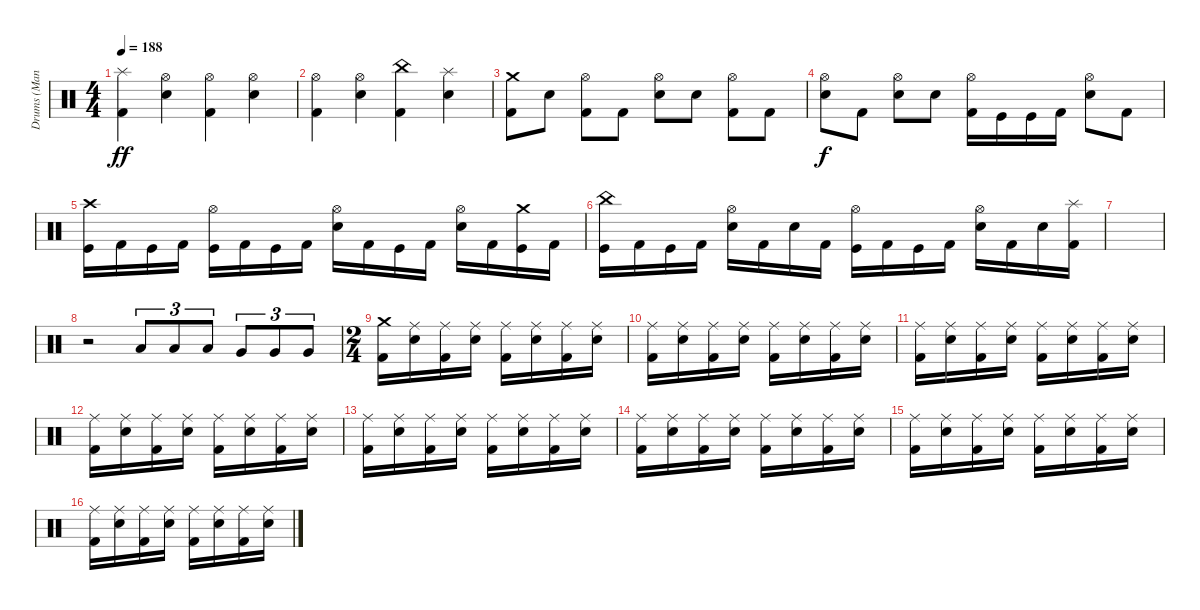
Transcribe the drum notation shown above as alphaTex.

\track ("Drums (Manheim)" "Drums (Man") {instrument percussion}
\staff {score}
\articulation defaults
\ts (4 4)
\tempo 188
\clef neutral
\ks c
("Splash (hit)" "Kick (hit) 2").4{dy ff} ("Hi-Hat (open)" "Electric Snare (hit)").4 ("Hi-Hat (open)" "Kick (hit) 2").4 ("Hi-Hat (open)" "Electric Snare (hit)").4 |
("Hi-Hat (open)" "Kick (hit) 2").4 ("Hi-Hat (open)" "Electric Snare (hit)").4 ("China (hit)" "Kick (hit) 2").4 ("Splash (hit)" "Electric Snare (hit)").4 |
("Crash medium (hit)" "Kick (hit) 2").8 "Electric Snare (hit)".8 ("Hi-Hat (open)" "Kick (hit) 2").8 "Kick (hit) 2".8 ("Hi-Hat (open)" "Electric Snare (hit)").8 "Electric Snare (hit)".8 ("Hi-Hat (open)" "Kick (hit) 2").8 "Kick (hit) 2".8 |
("Hi-Hat (open)" "Electric Snare (hit)").8{dy f} "Kick (hit) 2".8 ("Hi-Hat (open)" "Electric Snare (hit)").8 "Electric Snare (hit)".8 ("Hi-Hat (open)" "Kick (hit) 2").16 "Kick (hit)".16 "Kick (hit)".16 "Kick (hit) 2".16 ("Hi-Hat (open)" "Electric Snare (hit)").8 "Kick (hit) 2".8 |
("Crash high (hit)" "Kick (hit)").16 "Kick (hit) 2".16 "Kick (hit)".16 "Kick (hit) 2".16 ("Hi-Hat (open)" "Kick (hit)").16 "Kick (hit) 2".16 "Kick (hit)".16 "Kick (hit) 2".16 ("Hi-Hat (open)" "Electric Snare (hit)").16 "Kick (hit) 2".16 "Kick (hit)".16 "Kick (hit) 2".16 ("Hi-Hat (open)" "Electric Snare (hit)").16 "Kick (hit) 2".16 ("Crash medium (hit)" "Kick (hit)").16 "Kick (hit) 2".16 |
("China (hit)" "Kick (hit)").16 "Kick (hit) 2".16 "Kick (hit)".16 "Kick (hit) 2".16 ("Hi-Hat (open)" "Electric Snare (hit)").16 "Kick (hit) 2".16 "Electric Snare (hit)".16 "Kick (hit) 2".16 ("Hi-Hat (open)" "Kick (hit)").16 "Kick (hit) 2".16 "Kick (hit)".16 "Kick (hit) 2".16 ("Hi-Hat (open)" "Electric Snare (hit)").16 "Kick (hit) 2".16 "Electric Snare (hit)".16 ("Splash (hit)" "Kick (hit) 2").16 |
|
r.2 "Low Tom (hit)".8{tu (3 2)} "Low Tom (hit)".8{tu (3 2)} "Low Tom (hit)".8{tu (3 2)} "Very Low Tom (hit)".8{tu (3 2)} "Very Low Tom (hit)".8{tu (3 2)} "Very Low Tom (hit)".8{tu (3 2)} |
\ts (2 4)
("Crash medium (hit)" "Kick (hit) 2").16 ("Ride (middle)" "Electric Snare (hit)").16 ("Ride (middle)" "Kick (hit) 2").16 ("Ride (middle)" "Electric Snare (hit)").16 ("Ride (middle)" "Kick (hit) 2").16 ("Ride (middle)" "Electric Snare (hit)").16 ("Ride (middle)" "Kick (hit) 2").16 ("Ride (middle)" "Electric Snare (hit)").16 |
("Ride (middle)" "Kick (hit) 2").16 ("Ride (middle)" "Electric Snare (hit)").16 ("Ride (middle)" "Kick (hit) 2").16 ("Ride (middle)" "Electric Snare (hit)").16 ("Ride (middle)" "Kick (hit) 2").16 ("Ride (middle)" "Electric Snare (hit)").16 ("Ride (middle)" "Kick (hit) 2").16 ("Ride (middle)" "Electric Snare (hit)").16 |
("Ride (middle)" "Kick (hit) 2").16 ("Ride (middle)" "Electric Snare (hit)").16 ("Ride (middle)" "Kick (hit) 2").16 ("Ride (middle)" "Electric Snare (hit)").16 ("Ride (middle)" "Kick (hit) 2").16 ("Ride (middle)" "Electric Snare (hit)").16 ("Ride (middle)" "Kick (hit) 2").16 ("Ride (middle)" "Electric Snare (hit)").16 |
("Ride (middle)" "Kick (hit) 2").16 ("Ride (middle)" "Electric Snare (hit)").16 ("Ride (middle)" "Kick (hit) 2").16 ("Ride (middle)" "Electric Snare (hit)").16 ("Ride (middle)" "Kick (hit) 2").16 ("Ride (middle)" "Electric Snare (hit)").16 ("Ride (middle)" "Kick (hit) 2").16 ("Ride (middle)" "Electric Snare (hit)").16 |
("Ride (middle)" "Kick (hit) 2").16 ("Ride (middle)" "Electric Snare (hit)").16 ("Ride (middle)" "Kick (hit) 2").16 ("Ride (middle)" "Electric Snare (hit)").16 ("Ride (middle)" "Kick (hit) 2").16 ("Ride (middle)" "Electric Snare (hit)").16 ("Ride (middle)" "Kick (hit) 2").16 ("Ride (middle)" "Electric Snare (hit)").16 |
("Ride (middle)" "Kick (hit) 2").16 ("Ride (middle)" "Electric Snare (hit)").16 ("Ride (middle)" "Kick (hit) 2").16 ("Ride (middle)" "Electric Snare (hit)").16 ("Ride (middle)" "Kick (hit) 2").16 ("Ride (middle)" "Electric Snare (hit)").16 ("Ride (middle)" "Kick (hit) 2").16 ("Ride (middle)" "Electric Snare (hit)").16 |
("Ride (middle)" "Kick (hit) 2").16 ("Ride (middle)" "Electric Snare (hit)").16 ("Ride (middle)" "Kick (hit) 2").16 ("Ride (middle)" "Electric Snare (hit)").16 ("Ride (middle)" "Kick (hit) 2").16 ("Ride (middle)" "Electric Snare (hit)").16 ("Ride (middle)" "Kick (hit) 2").16 ("Ride (middle)" "Electric Snare (hit)").16 |
("Ride (middle)" "Kick (hit) 2").16 ("Ride (middle)" "Electric Snare (hit)").16 ("Ride (middle)" "Kick (hit) 2").16 ("Ride (middle)" "Electric Snare (hit)").16 ("Ride (middle)" "Kick (hit) 2").16 ("Ride (middle)" "Electric Snare (hit)").16 ("Ride (middle)" "Kick (hit) 2").16 ("Ride (middle)" "Electric Snare (hit)").16
